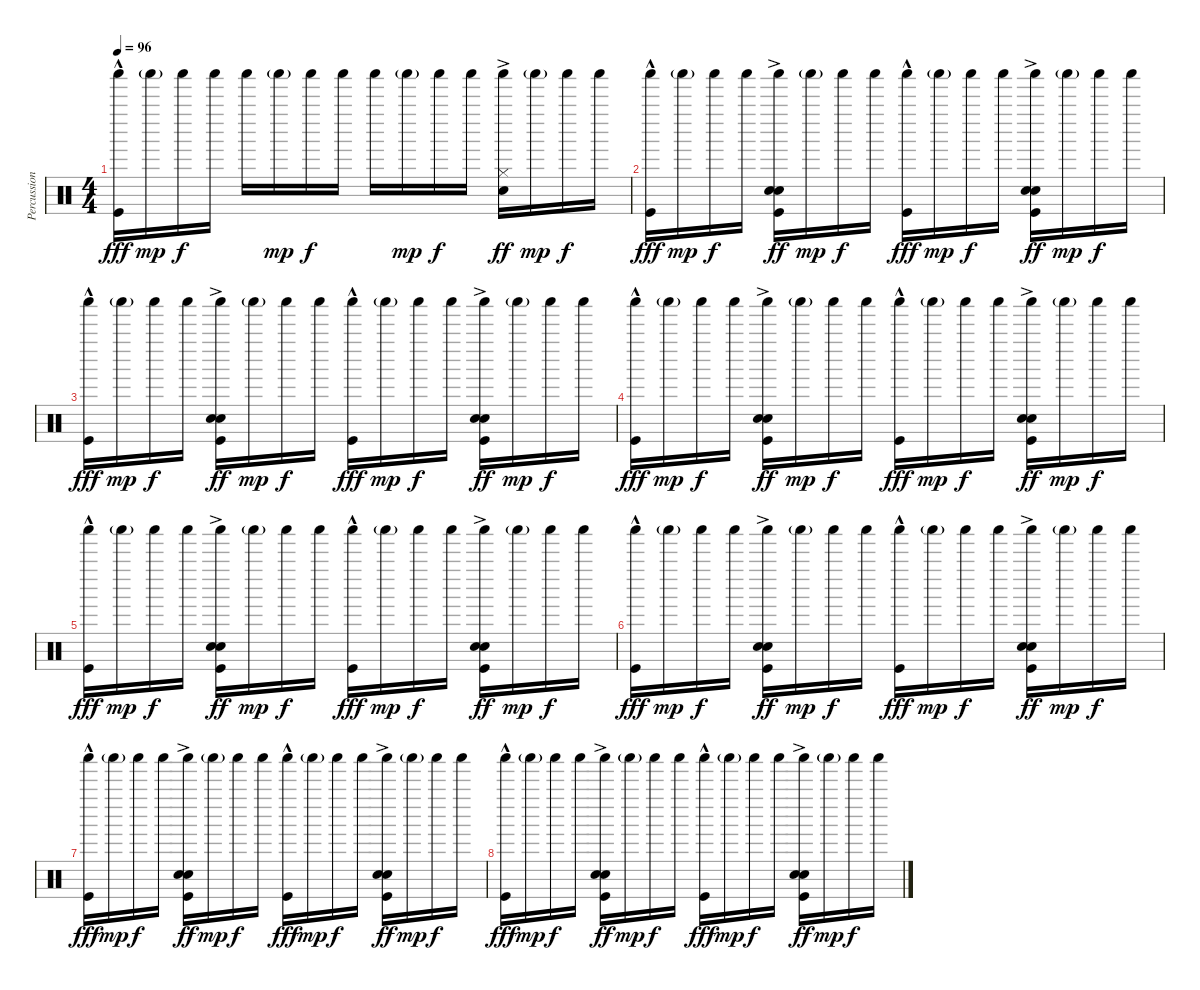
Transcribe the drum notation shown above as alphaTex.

\track ("Percussion" "Percussion") {instrument percussion}
\staff {score}
\articulation defaults
\ts (4 4)
\tempo 96
\clef neutral
\ks c
("Shaker (hit)" "Kick (hit)"{hac}).16{dy fff} "Shaker (hit)"{g}.16{dy mp} "Shaker (hit)".16{dy f} "Shaker (hit)".16 "Shaker (hit)".16 "Shaker (hit)"{g}.16{dy mp} "Shaker (hit)".16{dy f} "Shaker (hit)".16 "Shaker (hit)".16 "Shaker (hit)"{g}.16{dy mp} "Shaker (hit)".16{dy f} "Shaker (hit)".16 ("Shaker (hit)" "Hi-Hat (closed)" "Snare (hit) 2"{ac}).16{dy ff} "Shaker (hit)"{g}.16{dy mp} "Shaker (hit)".16{dy f} "Shaker (hit)".16 |
("Shaker (hit)" "Kick (hit)"{hac}).16{dy fff} "Shaker (hit)"{g}.16{dy mp} "Shaker (hit)".16{dy f} "Shaker (hit)".16 ("Shaker (hit)" "Hand Clap (hit)"{ac} "Snare (hit) 2"{ac} "Kick (hit)"{ac}).16{dy ff} "Shaker (hit)"{g}.16{dy mp} "Shaker (hit)".16{dy f} "Shaker (hit)".16 ("Shaker (hit)" "Kick (hit)"{hac}).16{dy fff} "Shaker (hit)"{g}.16{dy mp} "Shaker (hit)".16{dy f} "Shaker (hit)".16 ("Shaker (hit)" "Hand Clap (hit)"{ac} "Snare (hit) 2"{ac} "Kick (hit)"{ac}).16{dy ff} "Shaker (hit)"{g}.16{dy mp} "Shaker (hit)".16{dy f} "Shaker (hit)".16 |
("Shaker (hit)" "Kick (hit)"{hac}).16{dy fff} "Shaker (hit)"{g}.16{dy mp} "Shaker (hit)".16{dy f} "Shaker (hit)".16 ("Shaker (hit)" "Hand Clap (hit)"{ac} "Snare (hit) 2"{ac} "Kick (hit)"{ac}).16{dy ff} "Shaker (hit)"{g}.16{dy mp} "Shaker (hit)".16{dy f} "Shaker (hit)".16 ("Shaker (hit)" "Kick (hit)"{hac}).16{dy fff} "Shaker (hit)"{g}.16{dy mp} "Shaker (hit)".16{dy f} "Shaker (hit)".16 ("Shaker (hit)" "Hand Clap (hit)"{ac} "Snare (hit) 2"{ac} "Kick (hit)"{ac}).16{dy ff} "Shaker (hit)"{g}.16{dy mp} "Shaker (hit)".16{dy f} "Shaker (hit)".16 |
("Shaker (hit)" "Kick (hit)"{hac}).16{dy fff} "Shaker (hit)"{g}.16{dy mp} "Shaker (hit)".16{dy f} "Shaker (hit)".16 ("Shaker (hit)" "Hand Clap (hit)"{ac} "Snare (hit) 2"{ac} "Kick (hit)"{ac}).16{dy ff} "Shaker (hit)"{g}.16{dy mp} "Shaker (hit)".16{dy f} "Shaker (hit)".16 ("Shaker (hit)" "Kick (hit)"{hac}).16{dy fff} "Shaker (hit)"{g}.16{dy mp} "Shaker (hit)".16{dy f} "Shaker (hit)".16 ("Shaker (hit)" "Hand Clap (hit)"{ac} "Snare (hit) 2"{ac} "Kick (hit)"{ac}).16{dy ff} "Shaker (hit)"{g}.16{dy mp} "Shaker (hit)".16{dy f} "Shaker (hit)".16 |
("Shaker (hit)" "Kick (hit)"{hac}).16{dy fff} "Shaker (hit)"{g}.16{dy mp} "Shaker (hit)".16{dy f} "Shaker (hit)".16 ("Shaker (hit)" "Hand Clap (hit)"{ac} "Snare (hit) 2"{ac} "Kick (hit)"{ac}).16{dy ff} "Shaker (hit)"{g}.16{dy mp} "Shaker (hit)".16{dy f} "Shaker (hit)".16 ("Shaker (hit)" "Kick (hit)"{hac}).16{dy fff} "Shaker (hit)"{g}.16{dy mp} "Shaker (hit)".16{dy f} "Shaker (hit)".16 ("Shaker (hit)" "Hand Clap (hit)"{ac} "Snare (hit) 2"{ac} "Kick (hit)"{ac}).16{dy ff} "Shaker (hit)"{g}.16{dy mp} "Shaker (hit)".16{dy f} "Shaker (hit)".16 |
("Shaker (hit)" "Kick (hit)"{hac}).16{dy fff} "Shaker (hit)"{g}.16{dy mp} "Shaker (hit)".16{dy f} "Shaker (hit)".16 ("Shaker (hit)" "Hand Clap (hit)"{ac} "Snare (hit) 2"{ac} "Kick (hit)"{ac}).16{dy ff} "Shaker (hit)"{g}.16{dy mp} "Shaker (hit)".16{dy f} "Shaker (hit)".16 ("Shaker (hit)" "Kick (hit)"{hac}).16{dy fff} "Shaker (hit)"{g}.16{dy mp} "Shaker (hit)".16{dy f} "Shaker (hit)".16 ("Shaker (hit)" "Hand Clap (hit)"{ac} "Snare (hit) 2"{ac} "Kick (hit)"{ac}).16{dy ff} "Shaker (hit)"{g}.16{dy mp} "Shaker (hit)".16{dy f} "Shaker (hit)".16 |
("Shaker (hit)" "Kick (hit)"{hac}).16{dy fff} "Shaker (hit)"{g}.16{dy mp} "Shaker (hit)".16{dy f} "Shaker (hit)".16 ("Shaker (hit)" "Hand Clap (hit)"{ac} "Snare (hit) 2"{ac} "Kick (hit)"{ac}).16{dy ff} "Shaker (hit)"{g}.16{dy mp} "Shaker (hit)".16{dy f} "Shaker (hit)".16 ("Shaker (hit)" "Kick (hit)"{hac}).16{dy fff} "Shaker (hit)"{g}.16{dy mp} "Shaker (hit)".16{dy f} "Shaker (hit)".16 ("Shaker (hit)" "Hand Clap (hit)"{ac} "Snare (hit) 2"{ac} "Kick (hit)"{ac}).16{dy ff} "Shaker (hit)"{g}.16{dy mp} "Shaker (hit)".16{dy f} "Shaker (hit)".16 |
("Shaker (hit)" "Kick (hit)"{hac}).16{dy fff} "Shaker (hit)"{g}.16{dy mp} "Shaker (hit)".16{dy f} "Shaker (hit)".16 ("Shaker (hit)" "Hand Clap (hit)"{ac} "Snare (hit) 2"{ac} "Kick (hit)"{ac}).16{dy ff} "Shaker (hit)"{g}.16{dy mp} "Shaker (hit)".16{dy f} "Shaker (hit)".16 ("Shaker (hit)" "Kick (hit)"{hac}).16{dy fff} "Shaker (hit)"{g}.16{dy mp} "Shaker (hit)".16{dy f} "Shaker (hit)".16 ("Shaker (hit)" "Hand Clap (hit)"{ac} "Snare (hit) 2"{ac} "Kick (hit)"{ac}).16{dy ff} "Shaker (hit)"{g}.16{dy mp} "Shaker (hit)".16{dy f} "Shaker (hit)".16
